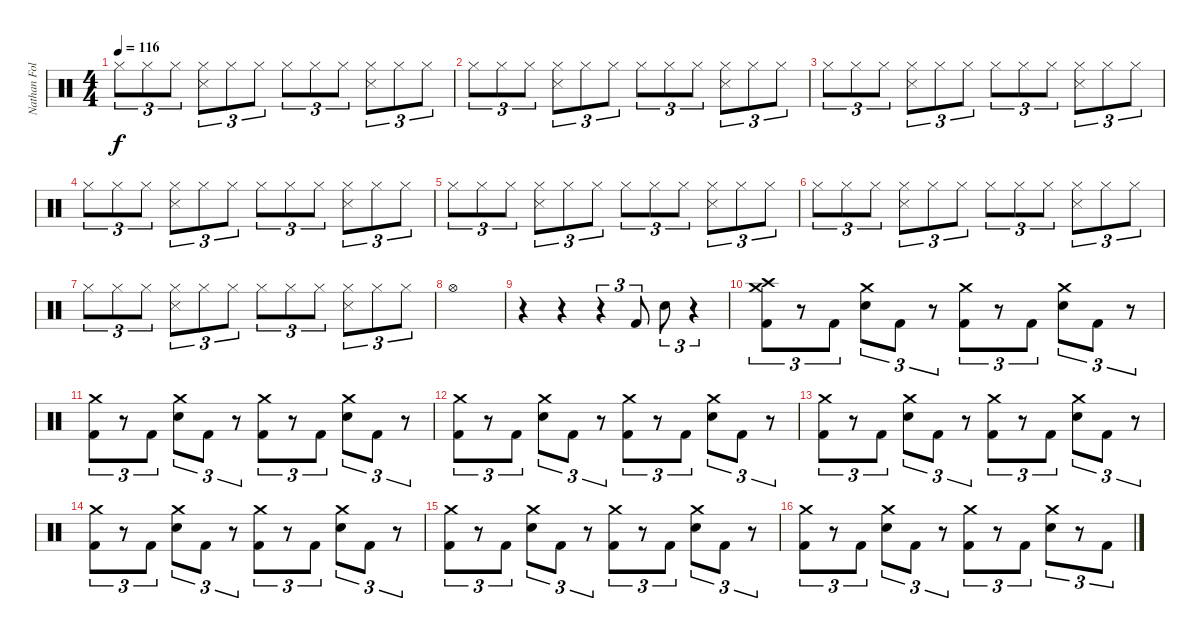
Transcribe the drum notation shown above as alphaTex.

\track ("Nathan Followill" "Nathan Fol") {instrument percussion}
\staff {score}
\articulation defaults
\ts (4 4)
\tempo 116
\clef neutral
\ks c "Hi-Hat (closed)".8{tu (3 2) dy f} "Hi-Hat (closed)".8{tu (3 2)} "Hi-Hat (closed)".8{tu (3 2)}
("Hi-Hat (closed)" "Snare (side stick) 3").8{tu (3 2)} "Hi-Hat (closed)".8{tu (3 2)} "Hi-Hat (closed)".8{tu (3 2)} "Hi-Hat (closed)".8{tu (3 2)} "Hi-Hat (closed)".8{tu (3 2)} "Hi-Hat (closed)".8{tu (3 2)} ("Hi-Hat (closed)" "Snare (side stick) 3").8{tu (3 2)} "Hi-Hat (closed)".8{tu (3 2)} "Hi-Hat (closed)".8{tu (3 2)} |
"Hi-Hat (closed)".8{tu (3 2)} "Hi-Hat (closed)".8{tu (3 2)} "Hi-Hat (closed)".8{tu (3 2)} ("Hi-Hat (closed)" "Snare (side stick) 3").8{tu (3 2)} "Hi-Hat (closed)".8{tu (3 2)} "Hi-Hat (closed)".8{tu (3 2)} "Hi-Hat (closed)".8{tu (3 2)} "Hi-Hat (closed)".8{tu (3 2)} "Hi-Hat (closed)".8{tu (3 2)} ("Hi-Hat (closed)" "Snare (side stick) 3").8{tu (3 2)} "Hi-Hat (closed)".8{tu (3 2)} "Hi-Hat (closed)".8{tu (3 2)} |
"Hi-Hat (closed)".8{tu (3 2)} "Hi-Hat (closed)".8{tu (3 2)} "Hi-Hat (closed)".8{tu (3 2)} ("Hi-Hat (closed)" "Snare (side stick) 3").8{tu (3 2)} "Hi-Hat (closed)".8{tu (3 2)} "Hi-Hat (closed)".8{tu (3 2)} "Hi-Hat (closed)".8{tu (3 2)} "Hi-Hat (closed)".8{tu (3 2)} "Hi-Hat (closed)".8{tu (3 2)} ("Hi-Hat (closed)" "Snare (side stick) 3").8{tu (3 2)} "Hi-Hat (closed)".8{tu (3 2)} "Hi-Hat (closed)".8{tu (3 2)} |
"Hi-Hat (closed)".8{tu (3 2)} "Hi-Hat (closed)".8{tu (3 2)} "Hi-Hat (closed)".8{tu (3 2)} ("Hi-Hat (closed)" "Snare (side stick) 3").8{tu (3 2)} "Hi-Hat (closed)".8{tu (3 2)} "Hi-Hat (closed)".8{tu (3 2)} "Hi-Hat (closed)".8{tu (3 2)} "Hi-Hat (closed)".8{tu (3 2)} "Hi-Hat (closed)".8{tu (3 2)} ("Hi-Hat (closed)" "Snare (side stick) 3").8{tu (3 2)} "Hi-Hat (closed)".8{tu (3 2)} "Hi-Hat (closed)".8{tu (3 2)} |
"Hi-Hat (closed)".8{tu (3 2)} "Hi-Hat (closed)".8{tu (3 2)} "Hi-Hat (closed)".8{tu (3 2)} ("Hi-Hat (closed)" "Snare (side stick) 3").8{tu (3 2)} "Hi-Hat (closed)".8{tu (3 2)} "Hi-Hat (closed)".8{tu (3 2)} "Hi-Hat (closed)".8{tu (3 2)} "Hi-Hat (closed)".8{tu (3 2)} "Hi-Hat (closed)".8{tu (3 2)} ("Hi-Hat (closed)" "Snare (side stick) 3").8{tu (3 2)} "Hi-Hat (closed)".8{tu (3 2)} "Hi-Hat (closed)".8{tu (3 2)} |
"Hi-Hat (closed)".8{tu (3 2)} "Hi-Hat (closed)".8{tu (3 2)} "Hi-Hat (closed)".8{tu (3 2)} ("Hi-Hat (closed)" "Snare (side stick) 3").8{tu (3 2)} "Hi-Hat (closed)".8{tu (3 2)} "Hi-Hat (closed)".8{tu (3 2)} "Hi-Hat (closed)".8{tu (3 2)} "Hi-Hat (closed)".8{tu (3 2)} "Hi-Hat (closed)".8{tu (3 2)} ("Hi-Hat (closed)" "Snare (side stick) 3").8{tu (3 2)} "Hi-Hat (closed)".8{tu (3 2)} "Hi-Hat (closed)".8{tu (3 2)} |
"Hi-Hat (closed)".8{tu (3 2)} "Hi-Hat (closed)".8{tu (3 2)} "Hi-Hat (closed)".8{tu (3 2)} ("Hi-Hat (closed)" "Snare (side stick) 3").8{tu (3 2)} "Hi-Hat (closed)".8{tu (3 2)} "Hi-Hat (closed)".8{tu (3 2)} "Hi-Hat (closed)".8{tu (3 2)} "Hi-Hat (closed)".8{tu (3 2)} "Hi-Hat (closed)".8{tu (3 2)} ("Hi-Hat (closed)" "Snare (side stick) 3").8{tu (3 2)} "Hi-Hat (closed)".8{tu (3 2)} "Hi-Hat (closed)".8{tu (3 2)} |
"Hi-Hat (open)".1 |
r.4 r.4 r.4{tu (3 2)} "Kick (hit) 2".8{tu (3 2)} "Electric Snare (hit)".8{tu (3 2)} r.4{tu (3 2)} |
("Crash high (hit)" "Crash medium (hit)" "Kick (hit) 2").8{tu (3 2)} r.8{tu (3 2)} "Kick (hit) 2".8{tu (3 2)} ("Crash medium (hit)" "Electric Snare (hit)").8{tu (3 2)} "Kick (hit) 2".8{tu (3 2)} r.8{tu (3 2)} ("Crash medium (hit)" "Kick (hit) 2").8{tu (3 2)} r.8{tu (3 2)} "Kick (hit) 2".8{tu (3 2)} ("Crash medium (hit)" "Electric Snare (hit)").8{tu (3 2)} "Kick (hit) 2".8{tu (3 2)} r.8{tu (3 2)} |
("Crash medium (hit)" "Kick (hit) 2").8{tu (3 2)} r.8{tu (3 2)} "Kick (hit) 2".8{tu (3 2)} ("Crash medium (hit)" "Electric Snare (hit)").8{tu (3 2)} "Kick (hit) 2".8{tu (3 2)} r.8{tu (3 2)} ("Crash medium (hit)" "Kick (hit) 2").8{tu (3 2)} r.8{tu (3 2)} "Kick (hit) 2".8{tu (3 2)} ("Crash medium (hit)" "Electric Snare (hit)").8{tu (3 2)} "Kick (hit) 2".8{tu (3 2)} r.8{tu (3 2)} |
("Crash medium (hit)" "Kick (hit) 2").8{tu (3 2)} r.8{tu (3 2)} "Kick (hit) 2".8{tu (3 2)} ("Crash medium (hit)" "Electric Snare (hit)").8{tu (3 2)} "Kick (hit) 2".8{tu (3 2)} r.8{tu (3 2)} ("Crash medium (hit)" "Kick (hit) 2").8{tu (3 2)} r.8{tu (3 2)} "Kick (hit) 2".8{tu (3 2)} ("Crash medium (hit)" "Electric Snare (hit)").8{tu (3 2)} "Kick (hit) 2".8{tu (3 2)} r.8{tu (3 2)} |
("Crash medium (hit)" "Kick (hit) 2").8{tu (3 2)} r.8{tu (3 2)} "Kick (hit) 2".8{tu (3 2)} ("Crash medium (hit)" "Electric Snare (hit)").8{tu (3 2)} "Kick (hit) 2".8{tu (3 2)} r.8{tu (3 2)} ("Crash medium (hit)" "Kick (hit) 2").8{tu (3 2)} r.8{tu (3 2)} "Kick (hit) 2".8{tu (3 2)} ("Crash medium (hit)" "Electric Snare (hit)").8{tu (3 2)} "Kick (hit) 2".8{tu (3 2)} r.8{tu (3 2)} |
("Crash medium (hit)" "Kick (hit) 2").8{tu (3 2)} r.8{tu (3 2)} "Kick (hit) 2".8{tu (3 2)} ("Crash medium (hit)" "Electric Snare (hit)").8{tu (3 2)} "Kick (hit) 2".8{tu (3 2)} r.8{tu (3 2)} ("Crash medium (hit)" "Kick (hit) 2").8{tu (3 2)} r.8{tu (3 2)} "Kick (hit) 2".8{tu (3 2)} ("Crash medium (hit)" "Electric Snare (hit)").8{tu (3 2)} "Kick (hit) 2".8{tu (3 2)} r.8{tu (3 2)} |
("Crash medium (hit)" "Kick (hit) 2").8{tu (3 2)} r.8{tu (3 2)} "Kick (hit) 2".8{tu (3 2)} ("Crash medium (hit)" "Electric Snare (hit)").8{tu (3 2)} "Kick (hit) 2".8{tu (3 2)} r.8{tu (3 2)} ("Crash medium (hit)" "Kick (hit) 2").8{tu (3 2)} r.8{tu (3 2)} "Kick (hit) 2".8{tu (3 2)} ("Crash medium (hit)" "Electric Snare (hit)").8{tu (3 2)} "Kick (hit) 2".8{tu (3 2)} r.8{tu (3 2)} |
("Crash medium (hit)" "Kick (hit) 2").8{tu (3 2)} r.8{tu (3 2)} "Kick (hit) 2".8{tu (3 2)} ("Crash medium (hit)" "Electric Snare (hit)").8{tu (3 2)} "Kick (hit) 2".8{tu (3 2)} r.8{tu (3 2)} ("Crash medium (hit)" "Kick (hit) 2").8{tu (3 2)} r.8{tu (3 2)} "Kick (hit) 2".8{tu (3 2)} ("Crash medium (hit)" "Electric Snare (hit)").8{tu (3 2)} r.8{tu (3 2)} "Kick (hit) 2".8{tu (3 2)}
